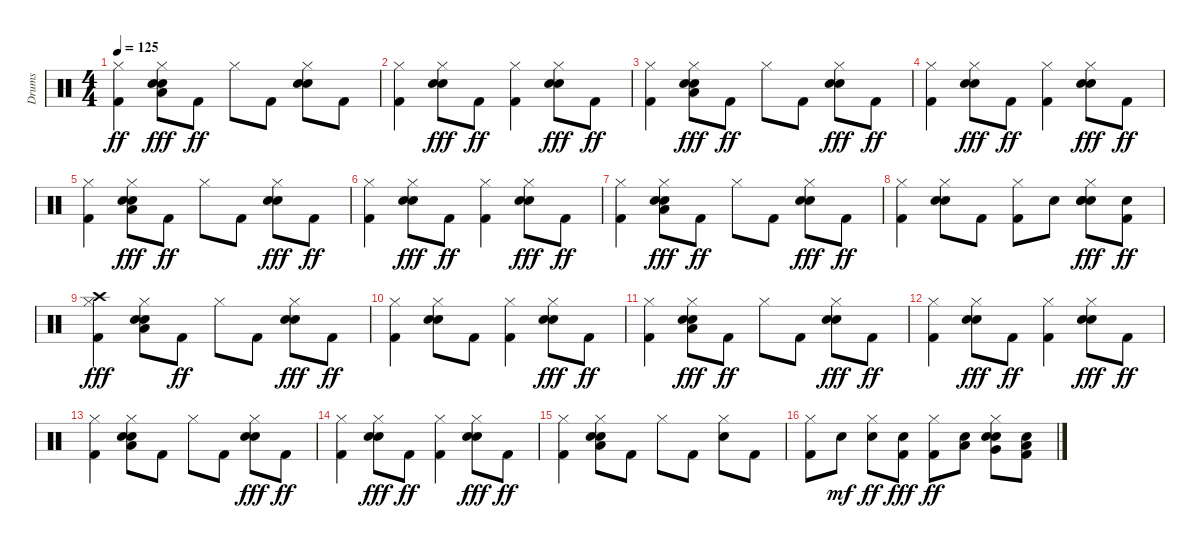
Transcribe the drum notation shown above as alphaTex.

\track ("Drums" "Drums") {instrument percussion}
\staff {score}
\articulation defaults
\ts (4 4)
\tempo 125
\clef neutral
\ks c
("Hi-Hat (closed)" "Kick (hit) 2").4{dy ff} ("Hi-Hat (closed)" "Hand Clap (hit)" "Low Tom (hit)" "Snare (hit) 2").8{dy fff} "Kick (hit) 2".8{dy ff} "Hi-Hat (closed)".8 "Kick (hit) 2".8 ("Hi-Hat (closed)" "Hand Clap (hit)" "Snare (hit) 2").8 "Kick (hit) 2".8 |
("Hi-Hat (closed)" "Kick (hit) 2").4 ("Hi-Hat (closed)" "Hand Clap (hit)" "Snare (hit) 2").8{dy fff} "Kick (hit) 2".8{dy ff} ("Hi-Hat (closed)" "Kick (hit) 2").4 ("Hi-Hat (closed)" "Hand Clap (hit)" "Snare (hit) 2").8{dy fff} "Kick (hit) 2".8{dy ff} |
("Hi-Hat (closed)" "Kick (hit) 2").4 ("Hi-Hat (closed)" "Hand Clap (hit)" "Low Tom (hit)" "Snare (hit) 2").8{dy fff} "Kick (hit) 2".8{dy ff} "Hi-Hat (closed)".8 "Kick (hit) 2".8 ("Hi-Hat (closed)" "Hand Clap (hit)" "Snare (hit) 2").8{dy fff} "Kick (hit) 2".8{dy ff} |
("Hi-Hat (closed)" "Kick (hit) 2").4 ("Hi-Hat (closed)" "Hand Clap (hit)" "Snare (hit) 2").8{dy fff} "Kick (hit) 2".8{dy ff} ("Hi-Hat (closed)" "Kick (hit) 2").4 ("Hi-Hat (closed)" "Hand Clap (hit)" "Snare (hit) 2").8{dy fff} "Kick (hit) 2".8{dy ff} |
("Hi-Hat (closed)" "Kick (hit) 2").4 ("Hi-Hat (closed)" "Hand Clap (hit)" "Low Tom (hit)" "Snare (hit) 2").8{dy fff} "Kick (hit) 2".8{dy ff} "Hi-Hat (closed)".8 "Kick (hit) 2".8 ("Hi-Hat (closed)" "Hand Clap (hit)" "Snare (hit) 2").8{dy fff} "Kick (hit) 2".8{dy ff} |
("Hi-Hat (closed)" "Kick (hit) 2").4 ("Hi-Hat (closed)" "Hand Clap (hit)" "Snare (hit) 2").8{dy fff} "Kick (hit) 2".8{dy ff} ("Hi-Hat (closed)" "Kick (hit) 2").4 ("Hi-Hat (closed)" "Hand Clap (hit)" "Snare (hit) 2").8{dy fff} "Kick (hit) 2".8{dy ff} |
("Hi-Hat (closed)" "Kick (hit) 2").4 ("Hi-Hat (closed)" "Hand Clap (hit)" "Low Tom (hit)" "Snare (hit) 2").8{dy fff} "Kick (hit) 2".8{dy ff} "Hi-Hat (closed)".8 "Kick (hit) 2".8 ("Hi-Hat (closed)" "Hand Clap (hit)" "Snare (hit) 2").8{dy fff} "Kick (hit) 2".8{dy ff} |
("Hi-Hat (closed)" "Kick (hit) 2").4 ("Hi-Hat (closed)" "Hand Clap (hit)" "Snare (hit) 2").8 "Kick (hit) 2".8 ("Hi-Hat (closed)" "Kick (hit) 2").8 "Electric Snare (hit)".8 ("Hi-Hat (closed)" "Hand Clap (hit)" "Snare (hit) 2" "Electric Snare (hit)").8{dy fff} ("Kick (hit) 2" "Electric Snare (hit)").8{dy ff} |
("Hi-Hat (closed)" "Kick (hit) 2" "Crash high (hit)").4{dy fff} ("Hi-Hat (closed)" "Hand Clap (hit)" "Low Tom (hit)" "Snare (hit) 2").8 "Kick (hit) 2".8{dy ff} "Hi-Hat (closed)".8 "Kick (hit) 2".8 ("Hi-Hat (closed)" "Hand Clap (hit)" "Snare (hit) 2").8{dy fff} "Kick (hit) 2".8{dy ff} |
("Hi-Hat (closed)" "Kick (hit) 2").4 ("Hi-Hat (closed)" "Hand Clap (hit)" "Snare (hit) 2").8 "Kick (hit) 2".8 ("Hi-Hat (closed)" "Kick (hit) 2").4 ("Hi-Hat (closed)" "Hand Clap (hit)" "Snare (hit) 2").8{dy fff} "Kick (hit) 2".8{dy ff} |
("Hi-Hat (closed)" "Kick (hit) 2").4 ("Hi-Hat (closed)" "Hand Clap (hit)" "Low Tom (hit)" "Snare (hit) 2").8{dy fff} "Kick (hit) 2".8{dy ff} "Hi-Hat (closed)".8 "Kick (hit) 2".8 ("Hi-Hat (closed)" "Hand Clap (hit)" "Snare (hit) 2").8{dy fff} "Kick (hit) 2".8{dy ff} |
("Hi-Hat (closed)" "Kick (hit) 2").4 ("Hi-Hat (closed)" "Hand Clap (hit)" "Snare (hit) 2").8{dy fff} "Kick (hit) 2".8{dy ff} ("Hi-Hat (closed)" "Kick (hit) 2").4 ("Hi-Hat (closed)" "Hand Clap (hit)" "Snare (hit) 2").8{dy fff} "Kick (hit) 2".8{dy ff} |
("Hi-Hat (closed)" "Kick (hit) 2").4 ("Hi-Hat (closed)" "Hand Clap (hit)" "Low Tom (hit)" "Snare (hit) 2").8 "Kick (hit) 2".8 "Hi-Hat (closed)".8 "Kick (hit) 2".8 ("Hi-Hat (closed)" "Hand Clap (hit)" "Snare (hit) 2").8{dy fff} "Kick (hit) 2".8{dy ff} |
("Hi-Hat (closed)" "Kick (hit) 2").4 ("Hi-Hat (closed)" "Hand Clap (hit)" "Snare (hit) 2").8{dy fff} "Kick (hit) 2".8{dy ff} ("Hi-Hat (closed)" "Kick (hit) 2").4 ("Hi-Hat (closed)" "Hand Clap (hit)" "Snare (hit) 2").8{dy fff} "Kick (hit) 2".8{dy ff} |
("Hi-Hat (closed)" "Kick (hit) 2").4 ("Hi-Hat (closed)" "Hand Clap (hit)" "Low Tom (hit)" "Snare (hit) 2").8 "Kick (hit) 2".8 "Hi-Hat (closed)".8 "Kick (hit) 2".8 ("Hi-Hat (closed)" "Hand Clap (hit)").8 "Kick (hit) 2".8 |
("Hi-Hat (closed)" "Kick (hit) 2").8 "Snare (hit) 2".8{dy mf} ("Hi-Hat (closed)" "Hand Clap (hit)").8{dy ff} ("Kick (hit) 2" "Snare (hit) 2").8{dy fff} ("Hi-Hat (closed)" "Kick (hit) 2").8{dy ff} ("Snare (hit) 2" "Low Tom (hit)").8 ("Hi-Hat (closed)" "Hand Clap (hit)" "Snare (hit) 2" "Very Low Tom (hit)").8 ("Kick (hit) 2" "Snare (hit) 2" "Low Floor Tom (hit)").8
